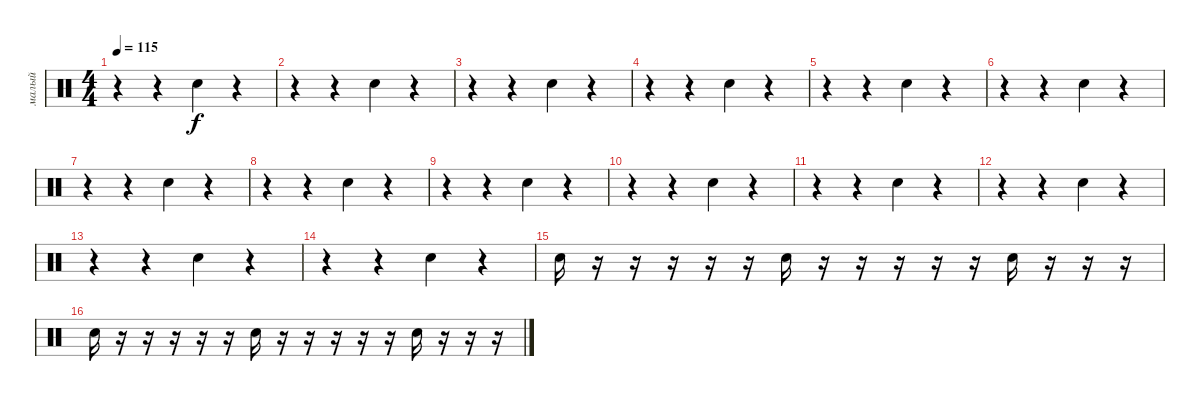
\track ("малый" "малый") {mute instrument percussion}
\staff {score}
\articulation defaults
\ts (4 4)
\tempo 115
\clef neutral
\ks c
r.4{dy f} r.4 "Electric Snare (hit)".4 r.4 |
r.4 r.4 "Electric Snare (hit)".4 r.4 |
r.4 r.4 "Electric Snare (hit)".4 r.4 |
r.4 r.4 "Electric Snare (hit)".4 r.4 |
r.4 r.4 "Electric Snare (hit)".4 r.4 |
r.4 r.4 "Electric Snare (hit)".4 r.4 |
r.4 r.4 "Electric Snare (hit)".4 r.4 |
r.4 r.4 "Electric Snare (hit)".4 r.4 |
r.4 r.4 "Electric Snare (hit)".4 r.4 |
r.4 r.4 "Electric Snare (hit)".4 r.4 |
r.4 r.4 "Electric Snare (hit)".4 r.4 |
r.4 r.4 "Electric Snare (hit)".4 r.4 |
r.4 r.4 "Electric Snare (hit)".4 r.4 |
r.4 r.4 "Electric Snare (hit)".4 r.4 |
"Electric Snare (hit)".16 r.16 r.16 r.16 r.16 r.16 "Electric Snare (hit)".16 r.16 r.16 r.16 r.16 r.16 "Electric Snare (hit)".16 r.16 r.16 r.16 |
"Electric Snare (hit)".16 r.16 r.16 r.16 r.16 r.16 "Electric Snare (hit)".16 r.16 r.16 r.16 r.16 r.16 "Electric Snare (hit)".16 r.16 r.16 r.16
